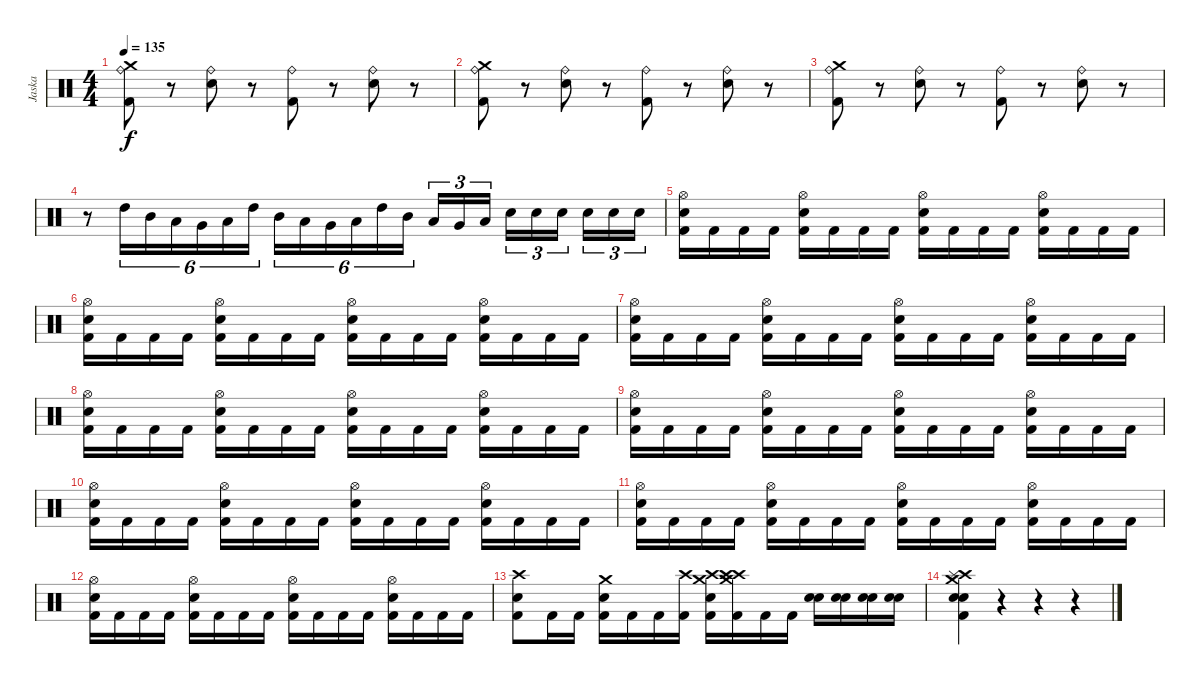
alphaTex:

\track ("Jaska" "Jaska") {instrument percussion}
\staff {score}
\articulation defaults
\ts (4 4)
\tempo 135
\clef neutral
\ks c
("Crash medium (hit)" "Ride (bell)" "Kick (hit) 2").8{dy f} r.8 ("Ride (bell)" "Snare (hit) 2").8 r.8 ("Ride (bell)" "Kick (hit) 2").8 r.8 ("Ride (bell)" "Snare (hit) 2").8 r.8 |
("Crash medium (hit)" "Ride (bell)" "Kick (hit) 2").8 r.8 ("Ride (bell)" "Snare (hit) 2").8 r.8 ("Ride (bell)" "Kick (hit) 2").8 r.8 ("Ride (bell)" "Snare (hit) 2").8 r.8 |
("Crash medium (hit)" "Ride (bell)" "Kick (hit) 2").8 r.8 ("Ride (bell)" "Snare (hit) 2").8 r.8 ("Ride (bell)" "Kick (hit) 2").8 r.8 ("Ride (bell)" "Snare (hit) 2").8 r.8 |
r.8 "High Tom (hit)".16{tu (6 4)} "Mid Tom (hit)".16{tu (6 4)} "Low Tom (hit)".16{tu (6 4)} "Very Low Tom (hit)".16{tu (6 4)} "Low Floor Tom (hit)".16{tu (6 4)} "High Tom (hit)".16{tu (6 4)} "Mid Tom (hit)".16{tu (6 4)} "Low Tom (hit)".16{tu (6 4)} "Very Low Tom (hit)".16{tu (6 4)} "Low Floor Tom (hit)".16{tu (6 4)} "High Tom (hit)".16{tu (6 4)} "Mid Tom (hit)".16{tu (6 4)} "Low Tom (hit)".16{tu (3 2)} "Very Low Tom (hit)".16{tu (3 2)} "Low Floor Tom (hit)".16{tu (3 2)} "Electric Snare (hit)".16{tu (3 2)} "Electric Snare (hit)".16{tu (3 2)} "Electric Snare (hit)".16{tu (3 2)} "Electric Snare (hit)".16{tu (3 2)} "Electric Snare (hit)".16{tu (3 2)} "Electric Snare (hit)".16{tu (3 2)} |
("Hi-Hat (open)" "Snare (hit) 2" "Kick (hit) 2").16 "Kick (hit) 2".16 "Kick (hit) 2".16 "Kick (hit) 2".16 ("Hi-Hat (open)" "Snare (hit) 2" "Kick (hit) 2").16 "Kick (hit) 2".16 "Kick (hit) 2".16 "Kick (hit) 2".16 ("Hi-Hat (open)" "Snare (hit) 2" "Kick (hit) 2").16 "Kick (hit) 2".16 "Kick (hit) 2".16 "Kick (hit) 2".16 ("Hi-Hat (open)" "Snare (hit) 2" "Kick (hit) 2").16 "Kick (hit) 2".16 "Kick (hit) 2".16 "Kick (hit) 2".16 |
("Hi-Hat (open)" "Snare (hit) 2" "Kick (hit) 2").16 "Kick (hit) 2".16 "Kick (hit) 2".16 "Kick (hit) 2".16 ("Hi-Hat (open)" "Snare (hit) 2" "Kick (hit) 2").16 "Kick (hit) 2".16 "Kick (hit) 2".16 "Kick (hit) 2".16 ("Hi-Hat (open)" "Snare (hit) 2" "Kick (hit) 2").16 "Kick (hit) 2".16 "Kick (hit) 2".16 "Kick (hit) 2".16 ("Hi-Hat (open)" "Snare (hit) 2" "Kick (hit) 2").16 "Kick (hit) 2".16 "Kick (hit) 2".16 "Kick (hit) 2".16 |
("Hi-Hat (open)" "Snare (hit) 2" "Kick (hit) 2").16 "Kick (hit) 2".16 "Kick (hit) 2".16 "Kick (hit) 2".16 ("Hi-Hat (open)" "Snare (hit) 2" "Kick (hit) 2").16 "Kick (hit) 2".16 "Kick (hit) 2".16 "Kick (hit) 2".16 ("Hi-Hat (open)" "Snare (hit) 2" "Kick (hit) 2").16 "Kick (hit) 2".16 "Kick (hit) 2".16 "Kick (hit) 2".16 ("Hi-Hat (open)" "Snare (hit) 2" "Kick (hit) 2").16 "Kick (hit) 2".16 "Kick (hit) 2".16 "Kick (hit) 2".16 |
("Hi-Hat (open)" "Snare (hit) 2" "Kick (hit) 2").16 "Kick (hit) 2".16 "Kick (hit) 2".16 "Kick (hit) 2".16 ("Hi-Hat (open)" "Snare (hit) 2" "Kick (hit) 2").16 "Kick (hit) 2".16 "Kick (hit) 2".16 "Kick (hit) 2".16 ("Hi-Hat (open)" "Snare (hit) 2" "Kick (hit) 2").16 "Kick (hit) 2".16 "Kick (hit) 2".16 "Kick (hit) 2".16 ("Hi-Hat (open)" "Snare (hit) 2" "Kick (hit) 2").16 "Kick (hit) 2".16 "Kick (hit) 2".16 "Kick (hit) 2".16 |
("Hi-Hat (open)" "Snare (hit) 2" "Kick (hit) 2").16 "Kick (hit) 2".16 "Kick (hit) 2".16 "Kick (hit) 2".16 ("Hi-Hat (open)" "Snare (hit) 2" "Kick (hit) 2").16 "Kick (hit) 2".16 "Kick (hit) 2".16 "Kick (hit) 2".16 ("Hi-Hat (open)" "Snare (hit) 2" "Kick (hit) 2").16 "Kick (hit) 2".16 "Kick (hit) 2".16 "Kick (hit) 2".16 ("Hi-Hat (open)" "Snare (hit) 2" "Kick (hit) 2").16 "Kick (hit) 2".16 "Kick (hit) 2".16 "Kick (hit) 2".16 |
("Hi-Hat (open)" "Snare (hit) 2" "Kick (hit) 2").16 "Kick (hit) 2".16 "Kick (hit) 2".16 "Kick (hit) 2".16 ("Hi-Hat (open)" "Snare (hit) 2" "Kick (hit) 2").16 "Kick (hit) 2".16 "Kick (hit) 2".16 "Kick (hit) 2".16 ("Hi-Hat (open)" "Snare (hit) 2" "Kick (hit) 2").16 "Kick (hit) 2".16 "Kick (hit) 2".16 "Kick (hit) 2".16 ("Hi-Hat (open)" "Snare (hit) 2" "Kick (hit) 2").16 "Kick (hit) 2".16 "Kick (hit) 2".16 "Kick (hit) 2".16 |
("Hi-Hat (open)" "Snare (hit) 2" "Kick (hit) 2").16 "Kick (hit) 2".16 "Kick (hit) 2".16 "Kick (hit) 2".16 ("Hi-Hat (open)" "Snare (hit) 2" "Kick (hit) 2").16 "Kick (hit) 2".16 "Kick (hit) 2".16 "Kick (hit) 2".16 ("Hi-Hat (open)" "Snare (hit) 2" "Kick (hit) 2").16 "Kick (hit) 2".16 "Kick (hit) 2".16 "Kick (hit) 2".16 ("Hi-Hat (open)" "Snare (hit) 2" "Kick (hit) 2").16 "Kick (hit) 2".16 "Kick (hit) 2".16 "Kick (hit) 2".16 |
("Hi-Hat (open)" "Snare (hit) 2" "Kick (hit) 2").16 "Kick (hit) 2".16 "Kick (hit) 2".16 "Kick (hit) 2".16 ("Hi-Hat (open)" "Snare (hit) 2" "Kick (hit) 2").16 "Kick (hit) 2".16 "Kick (hit) 2".16 "Kick (hit) 2".16 ("Hi-Hat (open)" "Snare (hit) 2" "Kick (hit) 2").16 "Kick (hit) 2".16 "Kick (hit) 2".16 "Kick (hit) 2".16 ("Hi-Hat (open)" "Snare (hit) 2" "Kick (hit) 2").16 "Kick (hit) 2".16 "Kick (hit) 2".16 "Kick (hit) 2".16 |
("Crash high (hit)" "Snare (hit) 2" "Kick (hit) 2").8 "Kick (hit) 2".16 "Kick (hit) 2".16 ("Crash medium (hit)" "Snare (hit) 2" "Kick (hit) 2").16 "Kick (hit) 2".16 "Kick (hit) 2".16 ("Crash high (hit)" "Kick (hit) 2").16 ("Crash high (hit)" "Crash medium (hit)" "Snare (hit) 2" "Kick (hit) 2").16 ("Crash high (hit)" "Crash medium (hit)" "Crash high (hit)" "Kick (hit) 2").16 "Kick (hit) 2".16 "Kick (hit) 2".16 ("Electric Snare (hit)" "Electric Snare (hit)").16 ("Electric Snare (hit)" "Electric Snare (hit)").16 ("Electric Snare (hit)" "Electric Snare (hit)").16 ("Electric Snare (hit)" "Electric Snare (hit)").16 |
("Crash medium (hit)" "Crash high (hit)" "Splash (hit)" "Snare (hit) 2" "Snare (hit) 2" "Kick (hit) 2").4 r.4 r.4 r.4
